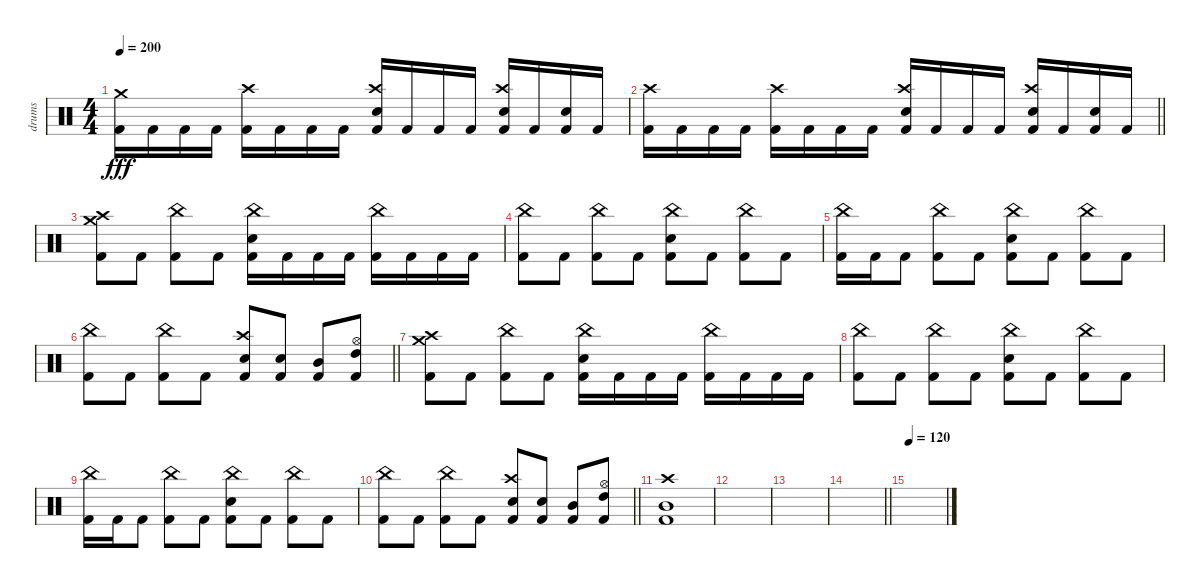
\track ("drums" "drums") {instrument percussion}
\staff {score}
\articulation defaults
\ts (4 4)
\tempo 200
\clef neutral
\ks c
("Crash medium (hit)" "Kick (hit) 2").16{dy fff} "Kick (hit) 2".16 "Kick (hit) 2".16 "Kick (hit) 2".16 ("Crash high (hit)" "Kick (hit) 2").16 "Kick (hit) 2".16 "Kick (hit) 2".16 "Kick (hit) 2".16 ("Crash high (hit)" "Electric Snare (hit)" "Kick (hit) 2").16 "Kick (hit) 2".16 "Kick (hit) 2".16 "Kick (hit) 2".16 ("Crash high (hit)" "Electric Snare (hit)" "Kick (hit) 2").16 "Kick (hit) 2".16 ("Electric Snare (hit)" "Kick (hit) 2").16 "Kick (hit) 2".16 |
\barLineRight lightlight
("Crash high (hit)" "Kick (hit) 2").16 "Kick (hit) 2".16 "Kick (hit) 2".16 "Kick (hit) 2".16 ("Crash high (hit)" "Kick (hit) 2").16 "Kick (hit) 2".16 "Kick (hit) 2".16 "Kick (hit) 2".16 ("Crash high (hit)" "Electric Snare (hit)" "Kick (hit) 2").16 "Kick (hit) 2".16 "Kick (hit) 2".16 "Kick (hit) 2".16 ("Crash high (hit)" "Electric Snare (hit)" "Kick (hit) 2").16 "Kick (hit) 2".16 ("Electric Snare (hit)" "Kick (hit) 2").16 "Kick (hit) 2".16 |
("Crash high (hit)" "Crash medium (hit)" "Kick (hit) 2").8 "Kick (hit) 2".8 ("China (hit)" "Kick (hit) 2").8 "Kick (hit) 2".8 ("China (hit)" "Electric Snare (hit)" "Kick (hit) 2").16 "Kick (hit) 2".16 "Kick (hit) 2".16 "Kick (hit) 2".16 ("China (hit)" "Kick (hit) 2").16 "Kick (hit) 2".16 "Kick (hit) 2".16 "Kick (hit) 2".16 |
("China (hit)" "Kick (hit) 2").8 "Kick (hit) 2".8 ("China (hit)" "Kick (hit) 2").8 "Kick (hit) 2".8 ("China (hit)" "Electric Snare (hit)" "Kick (hit) 2").8 "Kick (hit) 2".8 ("China (hit)" "Kick (hit) 2").8 "Kick (hit) 2".8 |
("China (hit)" "Kick (hit) 2").16 "Kick (hit) 2".16 "Kick (hit) 2".8 ("China (hit)" "Kick (hit) 2").8 "Kick (hit) 2".8 ("China (hit)" "Electric Snare (hit)" "Kick (hit) 2").8 "Kick (hit) 2".8 ("China (hit)" "Kick (hit) 2").8 "Kick (hit) 2".8 |
\barLineRight lightlight
("China (hit)" "Kick (hit) 2").8 "Kick (hit) 2".8 ("China (hit)" "Kick (hit) 2").8 "Kick (hit) 2".8 ("Crash high (hit)" "Electric Snare (hit)" "Kick (hit) 2").8 ("Electric Snare (hit)" "Kick (hit) 2").8 ("Mid Tom (hit)" "Kick (hit) 2").8 ("Hi-Hat (open)" "High Tom (hit)" "Kick (hit) 2").8 |
("Crash high (hit)" "Crash medium (hit)" "Kick (hit) 2").8 "Kick (hit) 2".8 ("China (hit)" "Kick (hit) 2").8 "Kick (hit) 2".8 ("China (hit)" "Electric Snare (hit)" "Kick (hit) 2").16 "Kick (hit) 2".16 "Kick (hit) 2".16 "Kick (hit) 2".16 ("China (hit)" "Kick (hit) 2").16 "Kick (hit) 2".16 "Kick (hit) 2".16 "Kick (hit) 2".16 |
("China (hit)" "Kick (hit) 2").8 "Kick (hit) 2".8 ("China (hit)" "Kick (hit) 2").8 "Kick (hit) 2".8 ("China (hit)" "Electric Snare (hit)" "Kick (hit) 2").8 "Kick (hit) 2".8 ("China (hit)" "Kick (hit) 2").8 "Kick (hit) 2".8 |
("China (hit)" "Kick (hit) 2").16 "Kick (hit) 2".16 "Kick (hit) 2".8 ("China (hit)" "Kick (hit) 2").8 "Kick (hit) 2".8 ("China (hit)" "Electric Snare (hit)" "Kick (hit) 2").8 "Kick (hit) 2".8 ("China (hit)" "Kick (hit) 2").8 "Kick (hit) 2".8 |
\barLineRight lightlight
("China (hit)" "Kick (hit) 2").8 "Kick (hit) 2".8 ("China (hit)" "Kick (hit) 2").8 "Kick (hit) 2".8 ("Crash high (hit)" "Electric Snare (hit)" "Kick (hit) 2").8 ("Electric Snare (hit)" "Kick (hit) 2").8 ("Mid Tom (hit)" "Kick (hit) 2").8 ("Hi-Hat (open)" "High Tom (hit)" "Kick (hit) 2").8 |
("Crash high (hit)" "Mid Tom (hit)" "Kick (hit) 2").1 |
|
|
\barLineRight lightlight
|
\tempo 120
